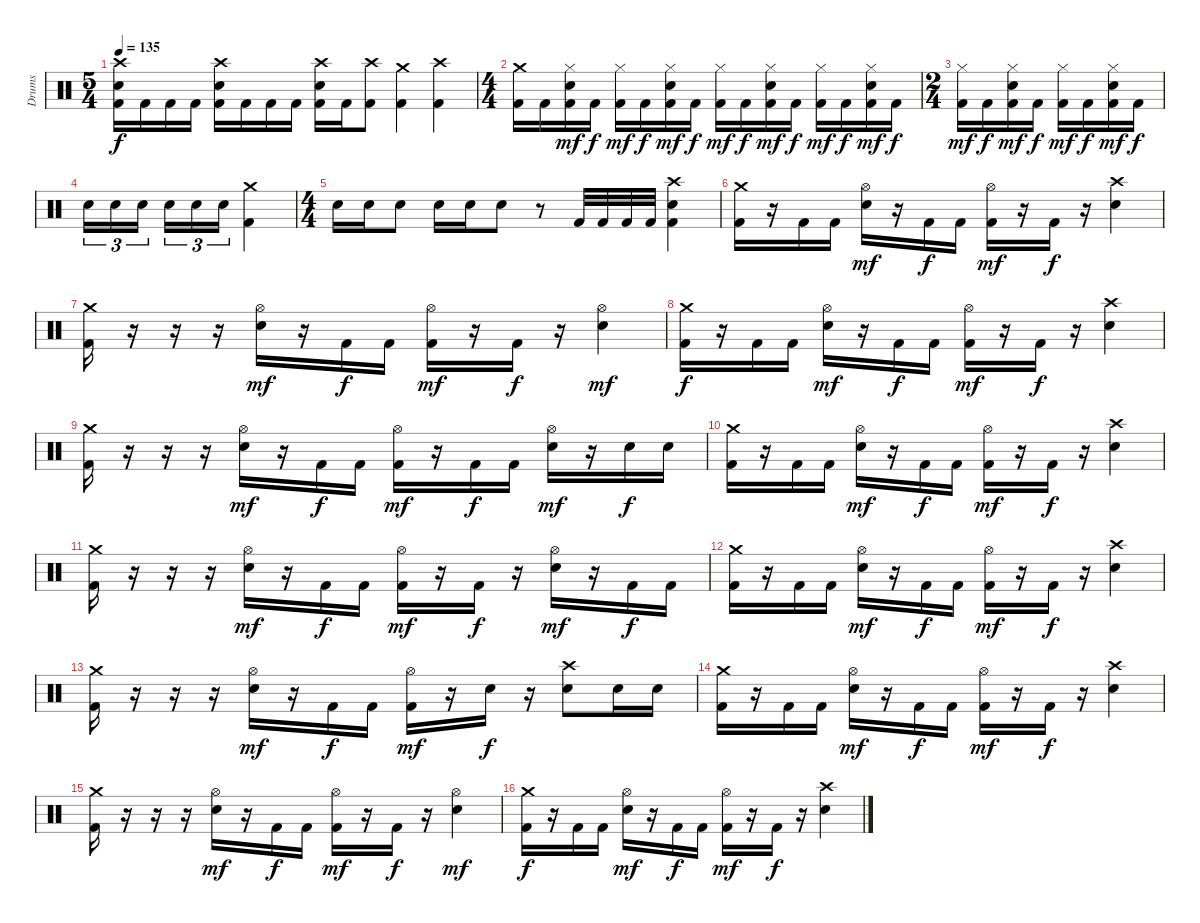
\track ("Drums" "Drums") {instrument percussion}
\staff {score}
\articulation defaults
\ts (5 4)
\tempo 135
\clef neutral
\ks c
("Crash high (hit)" "Electric Snare (hit)" "Kick (hit) 2").16{dy f} "Kick (hit) 2".16 "Kick (hit) 2".16 "Kick (hit) 2".16 ("Crash high (hit)" "Electric Snare (hit)" "Kick (hit) 2").16 "Kick (hit) 2".16 "Kick (hit) 2".16 "Kick (hit) 2".16 ("Crash high (hit)" "Electric Snare (hit)" "Kick (hit) 2").16 "Kick (hit) 2".16 ("Crash high (hit)" "Kick (hit) 2").8 ("Crash medium (hit)" "Kick (hit) 2").4 ("Crash high (hit)" "Kick (hit) 2").4 |
\ts (4 4)
("Crash medium (hit)" "Kick (hit) 2").16 "Kick (hit) 2".16 ("Hi-Hat (closed)" "Electric Snare (hit)" "Kick (hit) 2").16{dy mf} "Kick (hit) 2".16{dy f} ("Hi-Hat (closed)" "Kick (hit) 2").16{dy mf} "Kick (hit) 2".16{dy f} ("Hi-Hat (closed)" "Electric Snare (hit)" "Kick (hit) 2").16{dy mf} "Kick (hit) 2".16{dy f} ("Hi-Hat (closed)" "Kick (hit) 2").16{dy mf} "Kick (hit) 2".16{dy f} ("Hi-Hat (closed)" "Electric Snare (hit)" "Kick (hit) 2").16{dy mf} "Kick (hit) 2".16{dy f} ("Hi-Hat (closed)" "Kick (hit) 2").16{dy mf} "Kick (hit) 2".16{dy f} ("Hi-Hat (closed)" "Electric Snare (hit)" "Kick (hit) 2").16{dy mf} "Kick (hit) 2".16{dy f} |
\ts (2 4)
("Hi-Hat (closed)" "Kick (hit) 2").16{dy mf} "Kick (hit) 2".16{dy f} ("Hi-Hat (closed)" "Electric Snare (hit)" "Kick (hit) 2").16{dy mf} "Kick (hit) 2".16{dy f} ("Hi-Hat (closed)" "Kick (hit) 2").16{dy mf} "Kick (hit) 2".16{dy f} ("Hi-Hat (closed)" "Electric Snare (hit)" "Kick (hit) 2").16{dy mf} "Kick (hit) 2".16{dy f} |
"Electric Snare (hit)".16{tu (3 2)} "Electric Snare (hit)".16{tu (3 2)} "Electric Snare (hit)".16{tu (3 2)} "Electric Snare (hit)".16{tu (3 2)} "Electric Snare (hit)".16{tu (3 2)} "Electric Snare (hit)".16{tu (3 2)} ("Crash medium (hit)" "Kick (hit) 2").4 |
\ts (4 4)
"Electric Snare (hit)".16 "Electric Snare (hit)".16 "Electric Snare (hit)".8 "Electric Snare (hit)".16 "Electric Snare (hit)".16 "Electric Snare (hit)".8 r.8 "Kick (hit) 2".32 "Kick (hit) 2".32 "Kick (hit) 2".32 "Kick (hit) 2".32 ("Crash high (hit)" "Electric Snare (hit)" "Kick (hit) 2").4 |
("Crash medium (hit)" "Kick (hit) 2").16 r.16 "Kick (hit) 2".16 "Kick (hit) 2".16 ("Hi-Hat (open)" "Electric Snare (hit)").16{dy mf} r.16 "Kick (hit) 2".16{dy f} "Kick (hit) 2".16 ("Hi-Hat (open)" "Kick (hit) 2").16{dy mf} r.16 "Kick (hit) 2".16{dy f} r.16 ("Crash high (hit)" "Electric Snare (hit)").4 |
("Crash medium (hit)" "Kick (hit) 2").16 r.16 r.16 r.16 ("Hi-Hat (open)" "Electric Snare (hit)").16{dy mf} r.16 "Kick (hit) 2".16{dy f} "Kick (hit) 2".16 ("Hi-Hat (open)" "Kick (hit) 2").16{dy mf} r.16 "Kick (hit) 2".16{dy f} r.16 ("Hi-Hat (open)" "Electric Snare (hit)").4{dy mf} |
("Crash medium (hit)" "Kick (hit) 2").16{dy f} r.16 "Kick (hit) 2".16 "Kick (hit) 2".16 ("Hi-Hat (open)" "Electric Snare (hit)").16{dy mf} r.16 "Kick (hit) 2".16{dy f} "Kick (hit) 2".16 ("Hi-Hat (open)" "Kick (hit) 2").16{dy mf} r.16 "Kick (hit) 2".16{dy f} r.16 ("Crash high (hit)" "Electric Snare (hit)").4 |
("Crash medium (hit)" "Kick (hit) 2").16 r.16 r.16 r.16 ("Hi-Hat (open)" "Electric Snare (hit)").16{dy mf} r.16 "Kick (hit) 2".16{dy f} "Kick (hit) 2".16 ("Hi-Hat (open)" "Kick (hit) 2").16{dy mf} r.16 "Kick (hit) 2".16{dy f} "Kick (hit) 2".16 ("Hi-Hat (open)" "Electric Snare (hit)").16{dy mf} r.16 "Electric Snare (hit)".16{dy f} "Electric Snare (hit)".16 |
("Crash medium (hit)" "Kick (hit) 2").16 r.16 "Kick (hit) 2".16 "Kick (hit) 2".16 ("Hi-Hat (open)" "Electric Snare (hit)").16{dy mf} r.16 "Kick (hit) 2".16{dy f} "Kick (hit) 2".16 ("Hi-Hat (open)" "Kick (hit) 2").16{dy mf} r.16 "Kick (hit) 2".16{dy f} r.16 ("Crash high (hit)" "Electric Snare (hit)").4 |
("Crash medium (hit)" "Kick (hit) 2").16 r.16 r.16 r.16 ("Hi-Hat (open)" "Electric Snare (hit)").16{dy mf} r.16 "Kick (hit) 2".16{dy f} "Kick (hit) 2".16 ("Hi-Hat (open)" "Kick (hit) 2").16{dy mf} r.16 "Kick (hit) 2".16{dy f} r.16 ("Hi-Hat (open)" "Electric Snare (hit)").16{dy mf} r.16 "Kick (hit) 2".16{dy f} "Kick (hit) 2".16 |
("Crash medium (hit)" "Kick (hit) 2").16 r.16 "Kick (hit) 2".16 "Kick (hit) 2".16 ("Hi-Hat (open)" "Electric Snare (hit)").16{dy mf} r.16 "Kick (hit) 2".16{dy f} "Kick (hit) 2".16 ("Hi-Hat (open)" "Kick (hit) 2").16{dy mf} r.16 "Kick (hit) 2".16{dy f} r.16 ("Crash high (hit)" "Electric Snare (hit)").4 |
("Crash medium (hit)" "Kick (hit) 2").16 r.16 r.16 r.16 ("Hi-Hat (open)" "Electric Snare (hit)").16{dy mf} r.16 "Kick (hit) 2".16{dy f} "Kick (hit) 2".16 ("Hi-Hat (open)" "Kick (hit) 2").16{dy mf} r.16 "Electric Snare (hit)".16{dy f} r.16 ("Crash high (hit)" "Electric Snare (hit)").8 "Electric Snare (hit)".16 "Electric Snare (hit)".16 |
("Crash medium (hit)" "Kick (hit) 2").16 r.16 "Kick (hit) 2".16 "Kick (hit) 2".16 ("Hi-Hat (open)" "Electric Snare (hit)").16{dy mf} r.16 "Kick (hit) 2".16{dy f} "Kick (hit) 2".16 ("Hi-Hat (open)" "Kick (hit) 2").16{dy mf} r.16 "Kick (hit) 2".16{dy f} r.16 ("Crash high (hit)" "Electric Snare (hit)").4 |
("Crash medium (hit)" "Kick (hit) 2").16 r.16 r.16 r.16 ("Hi-Hat (open)" "Electric Snare (hit)").16{dy mf} r.16 "Kick (hit) 2".16{dy f} "Kick (hit) 2".16 ("Hi-Hat (open)" "Kick (hit) 2").16{dy mf} r.16 "Kick (hit) 2".16{dy f} r.16 ("Hi-Hat (open)" "Electric Snare (hit)").4{dy mf} |
("Crash medium (hit)" "Kick (hit) 2").16{dy f} r.16 "Kick (hit) 2".16 "Kick (hit) 2".16 ("Hi-Hat (open)" "Electric Snare (hit)").16{dy mf} r.16 "Kick (hit) 2".16{dy f} "Kick (hit) 2".16 ("Hi-Hat (open)" "Kick (hit) 2").16{dy mf} r.16 "Kick (hit) 2".16{dy f} r.16 ("Crash high (hit)" "Electric Snare (hit)").4
